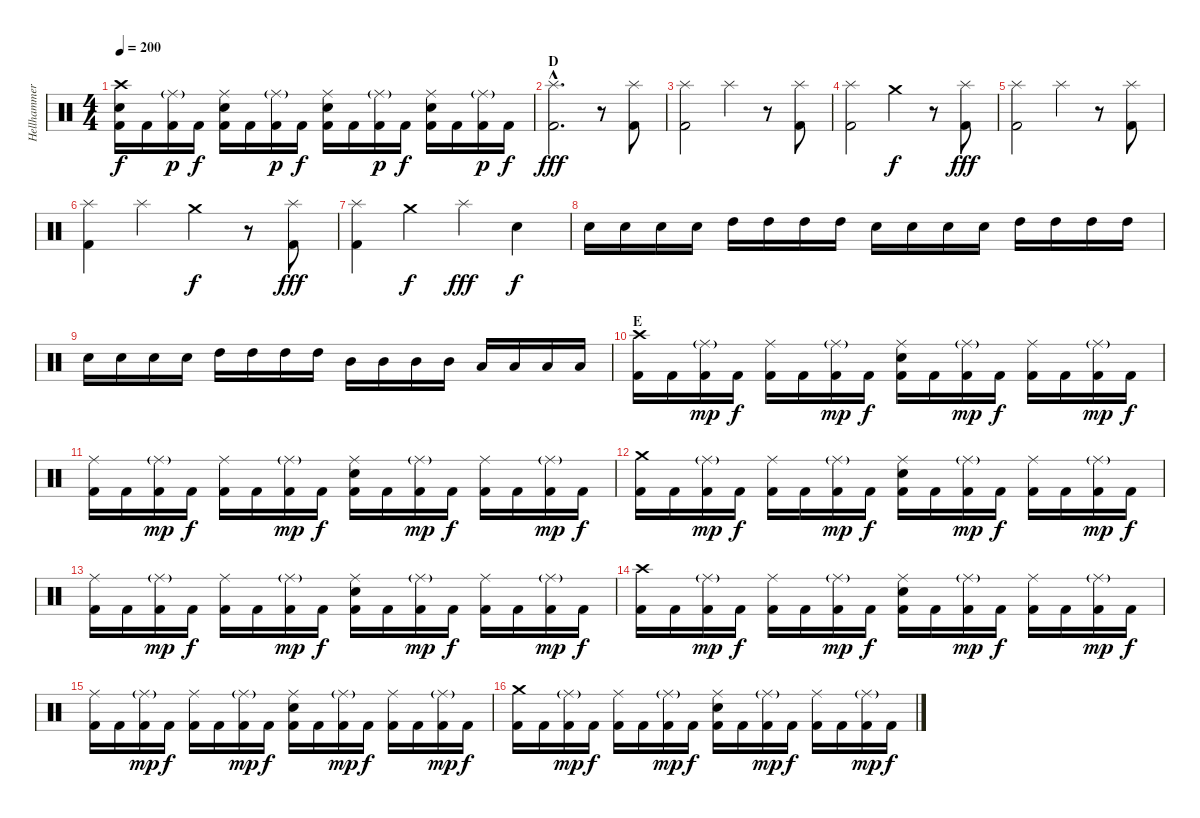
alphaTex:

\track ("Hellhammer" "Hellhammer") {instrument percussion}
\staff {score}
\articulation defaults
\ts (4 4)
\tempo 200
\clef neutral
\ks c
("Kick (hit) 2" "Electric Snare (hit)" "Crash high (hit)").16{dy f} "Kick (hit) 2".16 ("Kick (hit) 2" "Ride (middle)"{g}).16{dy p} "Kick (hit) 2".16{dy f} ("Kick (hit) 2" "Electric Snare (hit)" "Ride (middle)").16 "Kick (hit) 2".16 ("Kick (hit) 2" "Ride (middle)"{g}).16{dy p} "Kick (hit) 2".16{dy f} ("Kick (hit) 2" "Electric Snare (hit)" "Ride (middle)").16 "Kick (hit) 2".16 ("Kick (hit) 2" "Ride (middle)"{g}).16{dy p} "Kick (hit) 2".16{dy f} ("Kick (hit) 2" "Electric Snare (hit)" "Ride (middle)").16 "Kick (hit) 2".16 ("Kick (hit) 2" "Ride (middle)"{g}).16{dy p} "Kick (hit) 2".16{dy f} |
\section ("" "D")
("Kick (hit) 2"{hac} "Splash (hit)"{hac}).2{d dy fff} r.8 ("Kick (hit) 2" "Splash (hit)").8 |
("Kick (hit) 2" "Splash (hit)").2 "Splash (hit)".4 r.8 ("Kick (hit) 2" "Splash (hit)").8 |
("Kick (hit) 2" "Splash (hit)").2 "Crash medium (hit)".4{dy f} r.8 ("Kick (hit) 2" "Splash (hit)").8{dy fff} |
("Kick (hit) 2" "Splash (hit)").2 "Splash (hit)".4 r.8 ("Kick (hit) 2" "Splash (hit)").8 |
("Kick (hit) 2" "Splash (hit)").4 "Splash (hit)".4 "Crash medium (hit)".4{dy f} r.8 ("Kick (hit) 2" "Splash (hit)").8{dy fff} |
("Kick (hit) 2" "Splash (hit)").4 "Crash medium (hit)".4{dy f} "Splash (hit)".4{dy fff} "Electric Snare (hit)".4{dy f} |
"Electric Snare (hit)".16 "Electric Snare (hit)".16 "Electric Snare (hit)".16 "Electric Snare (hit)".16 "High Tom (hit)".16 "High Tom (hit)".16 "High Tom (hit)".16 "High Tom (hit)".16 "Electric Snare (hit)".16 "Electric Snare (hit)".16 "Electric Snare (hit)".16 "Electric Snare (hit)".16 "High Tom (hit)".16 "High Tom (hit)".16 "High Tom (hit)".16 "High Tom (hit)".16 |
"Electric Snare (hit)".16 "Electric Snare (hit)".16 "Electric Snare (hit)".16 "Electric Snare (hit)".16 "High Tom (hit)".16 "High Tom (hit)".16 "High Tom (hit)".16 "High Tom (hit)".16 "Mid Tom (hit)".16 "Mid Tom (hit)".16 "Mid Tom (hit)".16 "Mid Tom (hit)".16 "Low Tom (hit)".16 "Low Tom (hit)".16 "Low Tom (hit)".16 "Low Tom (hit)".16 |
\section ("" "E")
("Kick (hit) 2" "Crash high (hit)").16 "Kick (hit) 2".16 ("Kick (hit) 2" "Ride (middle)"{g}).16{dy mp} "Kick (hit) 2".16{dy f} ("Kick (hit) 2" "Ride (middle)").16 "Kick (hit) 2".16 ("Kick (hit) 2" "Ride (middle)"{g}).16{dy mp} "Kick (hit) 2".16{dy f} ("Kick (hit) 2" "Electric Snare (hit)" "Ride (middle)").16 "Kick (hit) 2".16 ("Kick (hit) 2" "Ride (middle)"{g}).16{dy mp} "Kick (hit) 2".16{dy f} ("Kick (hit) 2" "Ride (middle)").16 "Kick (hit) 2".16 ("Kick (hit) 2" "Ride (middle)"{g}).16{dy mp} "Kick (hit) 2".16{dy f} |
("Kick (hit) 2" "Ride (middle)").16 "Kick (hit) 2".16 ("Kick (hit) 2" "Ride (middle)"{g}).16{dy mp} "Kick (hit) 2".16{dy f} ("Kick (hit) 2" "Ride (middle)").16 "Kick (hit) 2".16 ("Kick (hit) 2" "Ride (middle)"{g}).16{dy mp} "Kick (hit) 2".16{dy f} ("Kick (hit) 2" "Electric Snare (hit)" "Ride (middle)").16 "Kick (hit) 2".16 ("Kick (hit) 2" "Ride (middle)"{g}).16{dy mp} "Kick (hit) 2".16{dy f} ("Kick (hit) 2" "Ride (middle)").16 "Kick (hit) 2".16 ("Kick (hit) 2" "Ride (middle)"{g}).16{dy mp} "Kick (hit) 2".16{dy f} |
("Kick (hit) 2" "Crash medium (hit)").16 "Kick (hit) 2".16 ("Kick (hit) 2" "Ride (middle)"{g}).16{dy mp} "Kick (hit) 2".16{dy f} ("Kick (hit) 2" "Ride (middle)").16 "Kick (hit) 2".16 ("Kick (hit) 2" "Ride (middle)"{g}).16{dy mp} "Kick (hit) 2".16{dy f} ("Kick (hit) 2" "Electric Snare (hit)" "Ride (middle)").16 "Kick (hit) 2".16 ("Kick (hit) 2" "Ride (middle)"{g}).16{dy mp} "Kick (hit) 2".16{dy f} ("Kick (hit) 2" "Ride (middle)").16 "Kick (hit) 2".16 ("Kick (hit) 2" "Ride (middle)"{g}).16{dy mp} "Kick (hit) 2".16{dy f} |
("Kick (hit) 2" "Ride (middle)").16 "Kick (hit) 2".16 ("Kick (hit) 2" "Ride (middle)"{g}).16{dy mp} "Kick (hit) 2".16{dy f} ("Kick (hit) 2" "Ride (middle)").16 "Kick (hit) 2".16 ("Kick (hit) 2" "Ride (middle)"{g}).16{dy mp} "Kick (hit) 2".16{dy f} ("Kick (hit) 2" "Electric Snare (hit)" "Ride (middle)").16 "Kick (hit) 2".16 ("Kick (hit) 2" "Ride (middle)"{g}).16{dy mp} "Kick (hit) 2".16{dy f} ("Kick (hit) 2" "Ride (middle)").16 "Kick (hit) 2".16 ("Kick (hit) 2" "Ride (middle)"{g}).16{dy mp} "Kick (hit) 2".16{dy f} |
("Kick (hit) 2" "Crash high (hit)").16 "Kick (hit) 2".16 ("Kick (hit) 2" "Ride (middle)"{g}).16{dy mp} "Kick (hit) 2".16{dy f} ("Kick (hit) 2" "Ride (middle)").16 "Kick (hit) 2".16 ("Kick (hit) 2" "Ride (middle)"{g}).16{dy mp} "Kick (hit) 2".16{dy f} ("Kick (hit) 2" "Electric Snare (hit)" "Ride (middle)").16 "Kick (hit) 2".16 ("Kick (hit) 2" "Ride (middle)"{g}).16{dy mp} "Kick (hit) 2".16{dy f} ("Kick (hit) 2" "Ride (middle)").16 "Kick (hit) 2".16 ("Kick (hit) 2" "Ride (middle)"{g}).16{dy mp} "Kick (hit) 2".16{dy f} |
("Kick (hit) 2" "Ride (middle)").16 "Kick (hit) 2".16 ("Kick (hit) 2" "Ride (middle)"{g}).16{dy mp} "Kick (hit) 2".16{dy f} ("Kick (hit) 2" "Ride (middle)").16 "Kick (hit) 2".16 ("Kick (hit) 2" "Ride (middle)"{g}).16{dy mp} "Kick (hit) 2".16{dy f} ("Kick (hit) 2" "Electric Snare (hit)" "Ride (middle)").16 "Kick (hit) 2".16 ("Kick (hit) 2" "Ride (middle)"{g}).16{dy mp} "Kick (hit) 2".16{dy f} ("Kick (hit) 2" "Ride (middle)").16 "Kick (hit) 2".16 ("Kick (hit) 2" "Ride (middle)"{g}).16{dy mp} "Kick (hit) 2".16{dy f} |
("Kick (hit) 2" "Crash medium (hit)").16 "Kick (hit) 2".16 ("Kick (hit) 2" "Ride (middle)"{g}).16{dy mp} "Kick (hit) 2".16{dy f} ("Kick (hit) 2" "Ride (middle)").16 "Kick (hit) 2".16 ("Kick (hit) 2" "Ride (middle)"{g}).16{dy mp} "Kick (hit) 2".16{dy f} ("Kick (hit) 2" "Electric Snare (hit)" "Ride (middle)").16 "Kick (hit) 2".16 ("Kick (hit) 2" "Ride (middle)"{g}).16{dy mp} "Kick (hit) 2".16{dy f} ("Kick (hit) 2" "Ride (middle)").16 "Kick (hit) 2".16 ("Kick (hit) 2" "Ride (middle)"{g}).16{dy mp} "Kick (hit) 2".16{dy f}
